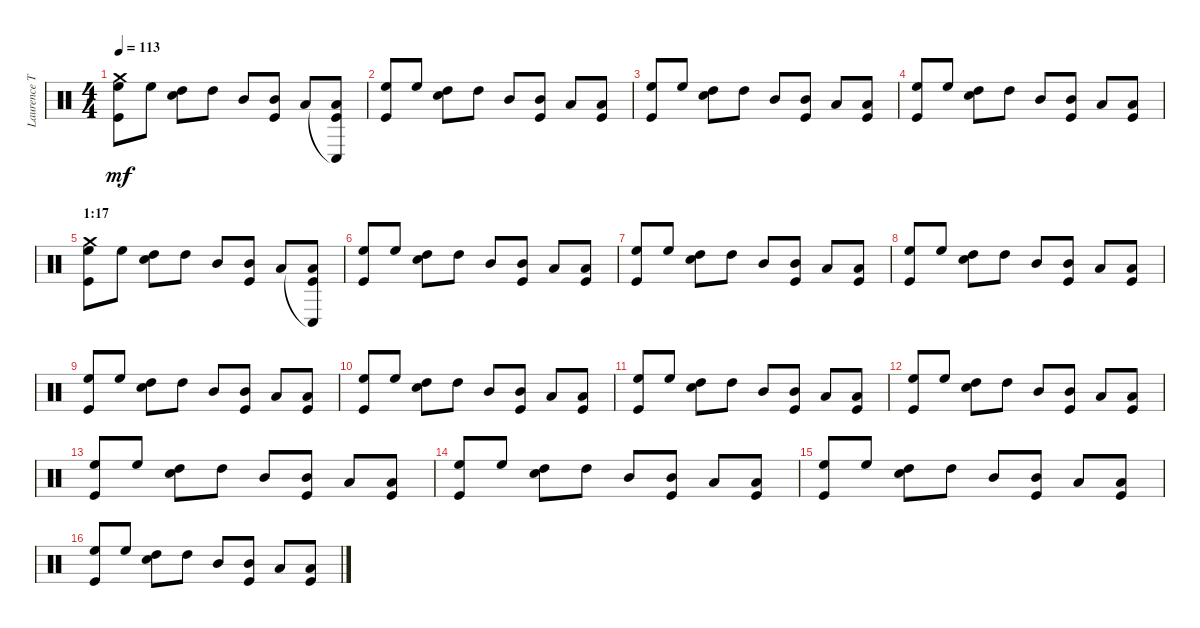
\track ("Laurence Tolhurst (drums)" "Laurence T") {instrument percussion}
\staff {score}
\articulation defaults
\ts (4 4)
\tempo 113
\clef neutral
\ks c
("Crash medium (hit)" "High Floor Tom (hit)" "Kick (hit)").8{dy mf} "High Floor Tom (hit)".8 ("High Tom (hit)" "Snare (hit) 2").8 "High Tom (hit)".8 "Mid Tom (hit)".8 ("Mid Tom (hit)" "Kick (hit)").8 "Low Tom (hit)".8 ("Conga low (hit)"{t} "Low Tom (hit)" "Kick (hit)").8 |
("High Floor Tom (hit)" "Kick (hit)").8 "High Floor Tom (hit)".8 ("High Tom (hit)" "Snare (hit) 2").8 "High Tom (hit)".8 "Mid Tom (hit)".8 ("Mid Tom (hit)" "Kick (hit)").8 "Low Tom (hit)".8 ("Low Tom (hit)" "Kick (hit)").8 |
("High Floor Tom (hit)" "Kick (hit)").8 "High Floor Tom (hit)".8 ("High Tom (hit)" "Snare (hit) 2").8 "High Tom (hit)".8 "Mid Tom (hit)".8 ("Mid Tom (hit)" "Kick (hit)").8 "Low Tom (hit)".8 ("Low Tom (hit)" "Kick (hit)").8 |
("High Floor Tom (hit)" "Kick (hit)").8 "High Floor Tom (hit)".8 ("High Tom (hit)" "Snare (hit) 2").8 "High Tom (hit)".8 "Mid Tom (hit)".8 ("Mid Tom (hit)" "Kick (hit)").8 "Low Tom (hit)".8 ("Low Tom (hit)" "Kick (hit)").8 |
\section ("" "1:17")
("Crash medium (hit)" "High Floor Tom (hit)" "Kick (hit)").8 "High Floor Tom (hit)".8 ("High Tom (hit)" "Snare (hit) 2").8 "High Tom (hit)".8 "Mid Tom (hit)".8 ("Mid Tom (hit)" "Kick (hit)").8 "Low Tom (hit)".8 ("Conga low (hit)"{t} "Low Tom (hit)" "Kick (hit)").8 |
("High Floor Tom (hit)" "Kick (hit)").8 "High Floor Tom (hit)".8 ("High Tom (hit)" "Snare (hit) 2").8 "High Tom (hit)".8 "Mid Tom (hit)".8 ("Mid Tom (hit)" "Kick (hit)").8 "Low Tom (hit)".8 ("Low Tom (hit)" "Kick (hit)").8 |
("High Floor Tom (hit)" "Kick (hit)").8 "High Floor Tom (hit)".8 ("High Tom (hit)" "Snare (hit) 2").8 "High Tom (hit)".8 "Mid Tom (hit)".8 ("Mid Tom (hit)" "Kick (hit)").8 "Low Tom (hit)".8 ("Low Tom (hit)" "Kick (hit)").8 |
("High Floor Tom (hit)" "Kick (hit)").8 "High Floor Tom (hit)".8 ("High Tom (hit)" "Snare (hit) 2").8 "High Tom (hit)".8 "Mid Tom (hit)".8 ("Mid Tom (hit)" "Kick (hit)").8 "Low Tom (hit)".8 ("Low Tom (hit)" "Kick (hit)").8 |
("High Floor Tom (hit)" "Kick (hit)").8 "High Floor Tom (hit)".8 ("High Tom (hit)" "Snare (hit) 2").8 "High Tom (hit)".8 "Mid Tom (hit)".8 ("Mid Tom (hit)" "Kick (hit)").8 "Low Tom (hit)".8 ("Low Tom (hit)" "Kick (hit)").8 |
("High Floor Tom (hit)" "Kick (hit)").8 "High Floor Tom (hit)".8 ("High Tom (hit)" "Snare (hit) 2").8 "High Tom (hit)".8 "Mid Tom (hit)".8 ("Mid Tom (hit)" "Kick (hit)").8 "Low Tom (hit)".8 ("Low Tom (hit)" "Kick (hit)").8 |
("High Floor Tom (hit)" "Kick (hit)").8 "High Floor Tom (hit)".8 ("High Tom (hit)" "Snare (hit) 2").8 "High Tom (hit)".8 "Mid Tom (hit)".8 ("Mid Tom (hit)" "Kick (hit)").8 "Low Tom (hit)".8 ("Low Tom (hit)" "Kick (hit)").8 |
("High Floor Tom (hit)" "Kick (hit)").8 "High Floor Tom (hit)".8 ("High Tom (hit)" "Snare (hit) 2").8 "High Tom (hit)".8 "Mid Tom (hit)".8 ("Mid Tom (hit)" "Kick (hit)").8 "Low Tom (hit)".8 ("Low Tom (hit)" "Kick (hit)").8 |
("High Floor Tom (hit)" "Kick (hit)").8 "High Floor Tom (hit)".8 ("High Tom (hit)" "Snare (hit) 2").8 "High Tom (hit)".8 "Mid Tom (hit)".8 ("Mid Tom (hit)" "Kick (hit)").8 "Low Tom (hit)".8 ("Low Tom (hit)" "Kick (hit)").8 |
("High Floor Tom (hit)" "Kick (hit)").8 "High Floor Tom (hit)".8 ("High Tom (hit)" "Snare (hit) 2").8 "High Tom (hit)".8 "Mid Tom (hit)".8 ("Mid Tom (hit)" "Kick (hit)").8 "Low Tom (hit)".8 ("Low Tom (hit)" "Kick (hit)").8 |
("High Floor Tom (hit)" "Kick (hit)").8 "High Floor Tom (hit)".8 ("High Tom (hit)" "Snare (hit) 2").8 "High Tom (hit)".8 "Mid Tom (hit)".8 ("Mid Tom (hit)" "Kick (hit)").8 "Low Tom (hit)".8 ("Low Tom (hit)" "Kick (hit)").8 |
("High Floor Tom (hit)" "Kick (hit)").8 "High Floor Tom (hit)".8 ("High Tom (hit)" "Snare (hit) 2").8 "High Tom (hit)".8 "Mid Tom (hit)".8 ("Mid Tom (hit)" "Kick (hit)").8 "Low Tom (hit)".8 ("Low Tom (hit)" "Kick (hit)").8
